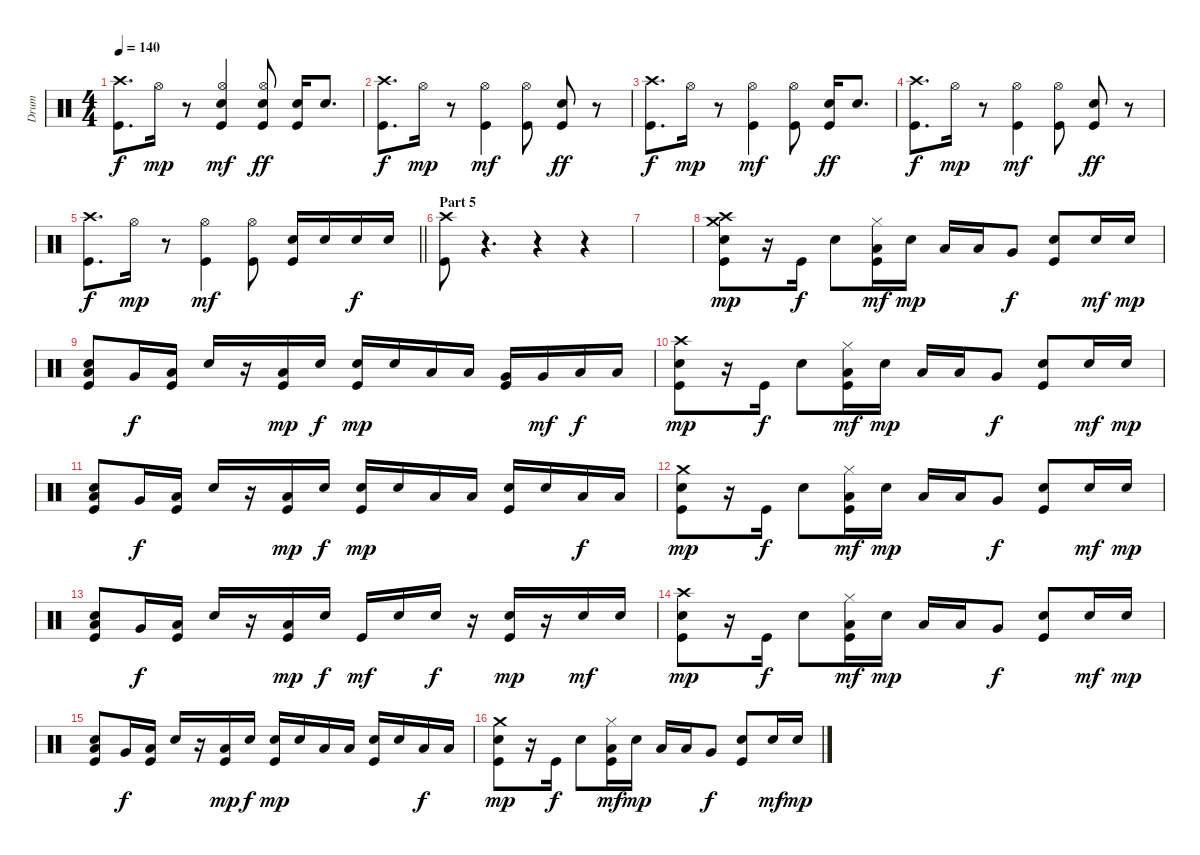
\track ("Drum" "Drum") {instrument percussion}
\staff {score}
\articulation defaults
\ts (4 4)
\tempo 140
\clef neutral
\ks c
("Crash high (hit)" "Kick (hit)").8{d dy f} "Hi-Hat (open)".16{dy mp} r.8 ("Hi-Hat (open)" "Electric Snare (hit)" "Kick (hit)").4{dy mf} ("Hi-Hat (open)" "Electric Snare (hit)" "Kick (hit)").8{dy ff} ("Electric Snare (hit)" "Kick (hit)").16 "Electric Snare (hit)".8{d} |
("Crash high (hit)" "Kick (hit)").8{d dy f} "Hi-Hat (open)".16{dy mp} r.8 ("Hi-Hat (open)" "Kick (hit)").4{dy mf} ("Hi-Hat (open)" "Kick (hit)").8 ("Electric Snare (hit)" "Kick (hit)").8{dy ff} r.8 |
("Crash high (hit)" "Kick (hit)").8{d dy f} "Hi-Hat (open)".16{dy mp} r.8 ("Hi-Hat (open)" "Kick (hit)").4{dy mf} ("Hi-Hat (open)" "Kick (hit)").8 ("Electric Snare (hit)" "Kick (hit)").16{dy ff} "Electric Snare (hit)".8{d} |
("Crash high (hit)" "Kick (hit)").8{d dy f} "Hi-Hat (open)".16{dy mp} r.8 ("Hi-Hat (open)" "Kick (hit)").4{dy mf} ("Hi-Hat (open)" "Kick (hit)").8 ("Electric Snare (hit)" "Kick (hit)").8{dy ff} r.8 |
\barLineRight lightlight
("Crash high (hit)" "Kick (hit)").8{d dy f} "Hi-Hat (open)".16{dy mp} r.8 ("Hi-Hat (open)" "Kick (hit)").4{dy mf} ("Hi-Hat (open)" "Kick (hit)").8 ("Electric Snare (hit)" "Kick (hit)").16 "Electric Snare (hit)".16 "Electric Snare (hit)".16{dy f} "Electric Snare (hit)".16 |
\section ("" "Part 5")
("Crash high (hit)" "Kick (hit)").8 r.4{d} r.4 r.4 |
|
("Crash medium (hit)" "Crash high (hit)" "Electric Snare (hit)" "Kick (hit)").8{dy mp} r.16 "Kick (hit)".16{dy f} "Electric Snare (hit)".8 ("Low Tom (hit)" "Hi-Hat (closed)" "Kick (hit)").16{dy mf} "Electric Snare (hit)".16{dy mp} "Low Tom (hit)".16 "Low Floor Tom (hit)".16 "Very Low Tom (hit)".8{dy f} ("Electric Snare (hit)" "Kick (hit)").8 "Electric Snare (hit)".16{dy mf} "Electric Snare (hit)".16{dy mp} |
("Low Tom (hit)" "Electric Snare (hit)" "Kick (hit)").8 "Very Low Tom (hit)".16{dy f} ("Low Floor Tom (hit)" "Kick (hit)").16 "Electric Snare (hit)".16 r.16 ("Low Tom (hit)" "Kick (hit)").16{dy mp} "Electric Snare (hit)".16{dy f} ("Electric Snare (hit)" "Kick (hit)").16{dy mp} "Electric Snare (hit)".16 "Low Tom (hit)".16 "Low Tom (hit)".16 ("Very Low Tom (hit)" "Kick (hit)").16 "Very Low Tom (hit)".16{dy mf} "Low Floor Tom (hit)".16{dy f} "Low Floor Tom (hit)".16 |
("Crash high (hit)" "Electric Snare (hit)" "Kick (hit)").8{dy mp} r.16 "Kick (hit)".16{dy f} "Electric Snare (hit)".8 ("Low Tom (hit)" "Hi-Hat (closed)" "Kick (hit)").16{dy mf} "Electric Snare (hit)".16{dy mp} "Low Tom (hit)".16 "Low Floor Tom (hit)".16 "Very Low Tom (hit)".8{dy f} ("Electric Snare (hit)" "Kick (hit)").8 "Electric Snare (hit)".16{dy mf} "Electric Snare (hit)".16{dy mp} |
("Low Tom (hit)" "Electric Snare (hit)" "Kick (hit)").8 "Very Low Tom (hit)".16{dy f} ("Low Floor Tom (hit)" "Kick (hit)").16 "Electric Snare (hit)".16 r.16 ("Low Tom (hit)" "Kick (hit)").16{dy mp} "Electric Snare (hit)".16{dy f} ("Electric Snare (hit)" "Kick (hit)").16{dy mp} "Electric Snare (hit)".16 "Low Tom (hit)".16 "Low Tom (hit)".16 ("Electric Snare (hit)" "Kick (hit)").16 "Electric Snare (hit)".16 "Low Floor Tom (hit)".16{dy f} "Low Floor Tom (hit)".16 |
("Crash medium (hit)" "Electric Snare (hit)" "Kick (hit)").8{dy mp} r.16 "Kick (hit)".16{dy f} "Electric Snare (hit)".8 ("Low Tom (hit)" "Hi-Hat (closed)" "Kick (hit)").16{dy mf} "Electric Snare (hit)".16{dy mp} "Low Tom (hit)".16 "Low Floor Tom (hit)".16 "Very Low Tom (hit)".8{dy f} ("Electric Snare (hit)" "Kick (hit)").8 "Electric Snare (hit)".16{dy mf} "Electric Snare (hit)".16{dy mp} |
("Low Tom (hit)" "Electric Snare (hit)" "Kick (hit)").8 "Very Low Tom (hit)".16{dy f} ("Low Floor Tom (hit)" "Kick (hit)").16 "Electric Snare (hit)".16 r.16 ("Low Tom (hit)" "Kick (hit)").16{dy mp} "Electric Snare (hit)".16{dy f} "Kick (hit)".16{dy mf} "Electric Snare (hit)".16 "Electric Snare (hit)".16{dy f} r.16 ("Electric Snare (hit)" "Kick (hit)").16{dy mp} r.16 "Electric Snare (hit)".16{dy mf} "Electric Snare (hit)".16 |
("Crash high (hit)" "Electric Snare (hit)" "Kick (hit)").8{dy mp} r.16 "Kick (hit)".16{dy f} "Electric Snare (hit)".8 ("Low Tom (hit)" "Hi-Hat (closed)" "Kick (hit)").16{dy mf} "Electric Snare (hit)".16{dy mp} "Low Tom (hit)".16 "Low Floor Tom (hit)".16 "Very Low Tom (hit)".8{dy f} ("Electric Snare (hit)" "Kick (hit)").8 "Electric Snare (hit)".16{dy mf} "Electric Snare (hit)".16{dy mp} |
("Low Tom (hit)" "Electric Snare (hit)" "Kick (hit)").8 "Very Low Tom (hit)".16{dy f} ("Low Floor Tom (hit)" "Kick (hit)").16 "Electric Snare (hit)".16 r.16 ("Low Tom (hit)" "Kick (hit)").16{dy mp} "Electric Snare (hit)".16{dy f} ("Electric Snare (hit)" "Kick (hit)").16{dy mp} "Electric Snare (hit)".16 "Low Tom (hit)".16 "Low Tom (hit)".16 ("Electric Snare (hit)" "Kick (hit)").16 "Electric Snare (hit)".16 "Low Floor Tom (hit)".16{dy f} "Low Floor Tom (hit)".16 |
("Crash medium (hit)" "Electric Snare (hit)" "Kick (hit)").8{dy mp} r.16 "Kick (hit)".16{dy f} "Electric Snare (hit)".8 ("Low Tom (hit)" "Hi-Hat (closed)" "Kick (hit)").16{dy mf} "Electric Snare (hit)".16{dy mp} "Low Tom (hit)".16 "Low Floor Tom (hit)".16 "Very Low Tom (hit)".8{dy f} ("Electric Snare (hit)" "Kick (hit)").8 "Electric Snare (hit)".16{dy mf} "Electric Snare (hit)".16{dy mp}
